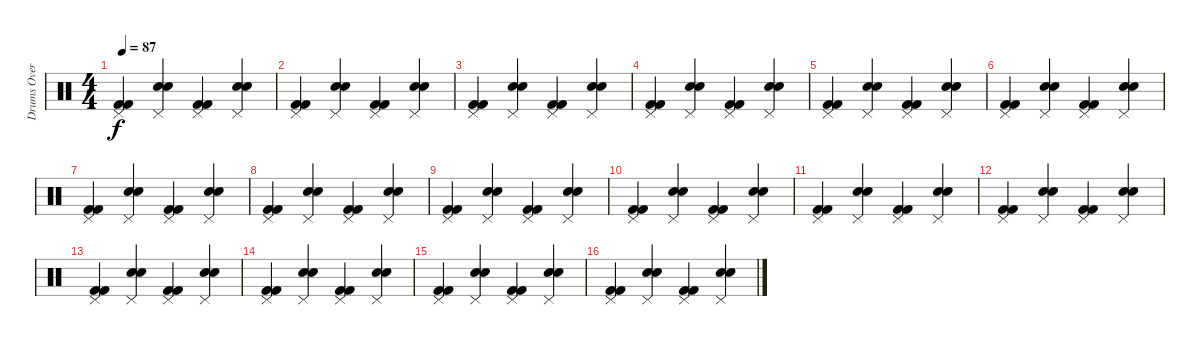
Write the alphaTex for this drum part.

\track ("Drums Overdub" "Drums Over") {instrument percussion}
\staff {score}
\articulation defaults
\ts (4 4)
\tempo 87
\clef neutral
\ks c
("Pedal Hi-Hat (hit)" "Kick (hit) 2" "Kick (hit) 2").4{dy f} ("Snare (hit) 2" "Snare (hit) 2" "Pedal Hi-Hat (hit)").4 ("Pedal Hi-Hat (hit)" "Kick (hit) 2" "Kick (hit) 2").4 ("Snare (hit) 2" "Snare (hit) 2" "Pedal Hi-Hat (hit)").4 |
("Pedal Hi-Hat (hit)" "Kick (hit) 2" "Kick (hit) 2").4 ("Snare (hit) 2" "Snare (hit) 2" "Pedal Hi-Hat (hit)").4 ("Pedal Hi-Hat (hit)" "Kick (hit) 2" "Kick (hit) 2").4 ("Snare (hit) 2" "Snare (hit) 2" "Pedal Hi-Hat (hit)").4 |
("Pedal Hi-Hat (hit)" "Kick (hit) 2" "Kick (hit) 2").4 ("Snare (hit) 2" "Snare (hit) 2" "Pedal Hi-Hat (hit)").4 ("Pedal Hi-Hat (hit)" "Kick (hit) 2" "Kick (hit) 2").4 ("Snare (hit) 2" "Snare (hit) 2" "Pedal Hi-Hat (hit)").4 |
("Pedal Hi-Hat (hit)" "Kick (hit) 2" "Kick (hit) 2").4 ("Snare (hit) 2" "Snare (hit) 2" "Pedal Hi-Hat (hit)").4 ("Pedal Hi-Hat (hit)" "Kick (hit) 2" "Kick (hit) 2").4 ("Snare (hit) 2" "Snare (hit) 2" "Pedal Hi-Hat (hit)").4 |
("Pedal Hi-Hat (hit)" "Kick (hit) 2" "Kick (hit) 2").4 ("Snare (hit) 2" "Snare (hit) 2" "Pedal Hi-Hat (hit)").4 ("Pedal Hi-Hat (hit)" "Kick (hit) 2" "Kick (hit) 2").4 ("Snare (hit) 2" "Snare (hit) 2" "Pedal Hi-Hat (hit)").4 |
("Pedal Hi-Hat (hit)" "Kick (hit) 2" "Kick (hit) 2").4 ("Snare (hit) 2" "Snare (hit) 2" "Pedal Hi-Hat (hit)").4 ("Pedal Hi-Hat (hit)" "Kick (hit) 2" "Kick (hit) 2").4 ("Snare (hit) 2" "Snare (hit) 2" "Pedal Hi-Hat (hit)").4 |
("Pedal Hi-Hat (hit)" "Kick (hit) 2" "Kick (hit) 2").4 ("Snare (hit) 2" "Snare (hit) 2" "Pedal Hi-Hat (hit)").4 ("Pedal Hi-Hat (hit)" "Kick (hit) 2" "Kick (hit) 2").4 ("Snare (hit) 2" "Snare (hit) 2" "Pedal Hi-Hat (hit)").4 |
("Pedal Hi-Hat (hit)" "Kick (hit) 2" "Kick (hit) 2").4 ("Snare (hit) 2" "Snare (hit) 2" "Pedal Hi-Hat (hit)").4 ("Pedal Hi-Hat (hit)" "Kick (hit) 2" "Kick (hit) 2").4 ("Snare (hit) 2" "Snare (hit) 2" "Pedal Hi-Hat (hit)").4 |
("Pedal Hi-Hat (hit)" "Kick (hit) 2" "Kick (hit) 2").4 ("Snare (hit) 2" "Snare (hit) 2" "Pedal Hi-Hat (hit)").4 ("Pedal Hi-Hat (hit)" "Kick (hit) 2" "Kick (hit) 2").4 ("Snare (hit) 2" "Snare (hit) 2" "Pedal Hi-Hat (hit)").4 |
("Pedal Hi-Hat (hit)" "Kick (hit) 2" "Kick (hit) 2").4 ("Snare (hit) 2" "Snare (hit) 2" "Pedal Hi-Hat (hit)").4 ("Pedal Hi-Hat (hit)" "Kick (hit) 2" "Kick (hit) 2").4 ("Snare (hit) 2" "Snare (hit) 2" "Pedal Hi-Hat (hit)").4 |
("Pedal Hi-Hat (hit)" "Kick (hit) 2" "Kick (hit) 2").4 ("Snare (hit) 2" "Snare (hit) 2" "Pedal Hi-Hat (hit)").4 ("Pedal Hi-Hat (hit)" "Kick (hit) 2" "Kick (hit) 2").4 ("Snare (hit) 2" "Snare (hit) 2" "Pedal Hi-Hat (hit)").4 |
("Pedal Hi-Hat (hit)" "Kick (hit) 2" "Kick (hit) 2").4 ("Snare (hit) 2" "Snare (hit) 2" "Pedal Hi-Hat (hit)").4 ("Pedal Hi-Hat (hit)" "Kick (hit) 2" "Kick (hit) 2").4 ("Snare (hit) 2" "Snare (hit) 2" "Pedal Hi-Hat (hit)").4 |
("Pedal Hi-Hat (hit)" "Kick (hit) 2" "Kick (hit) 2").4 ("Snare (hit) 2" "Snare (hit) 2" "Pedal Hi-Hat (hit)").4 ("Pedal Hi-Hat (hit)" "Kick (hit) 2" "Kick (hit) 2").4 ("Snare (hit) 2" "Snare (hit) 2" "Pedal Hi-Hat (hit)").4 |
("Pedal Hi-Hat (hit)" "Kick (hit) 2" "Kick (hit) 2").4 ("Snare (hit) 2" "Snare (hit) 2" "Pedal Hi-Hat (hit)").4 ("Pedal Hi-Hat (hit)" "Kick (hit) 2" "Kick (hit) 2").4 ("Snare (hit) 2" "Snare (hit) 2" "Pedal Hi-Hat (hit)").4 |
("Pedal Hi-Hat (hit)" "Kick (hit) 2" "Kick (hit) 2").4 ("Snare (hit) 2" "Snare (hit) 2" "Pedal Hi-Hat (hit)").4 ("Pedal Hi-Hat (hit)" "Kick (hit) 2" "Kick (hit) 2").4 ("Snare (hit) 2" "Snare (hit) 2" "Pedal Hi-Hat (hit)").4 |
("Pedal Hi-Hat (hit)" "Kick (hit) 2" "Kick (hit) 2").4 ("Snare (hit) 2" "Snare (hit) 2" "Pedal Hi-Hat (hit)").4 ("Pedal Hi-Hat (hit)" "Kick (hit) 2" "Kick (hit) 2").4 ("Snare (hit) 2" "Snare (hit) 2" "Pedal Hi-Hat (hit)").4
